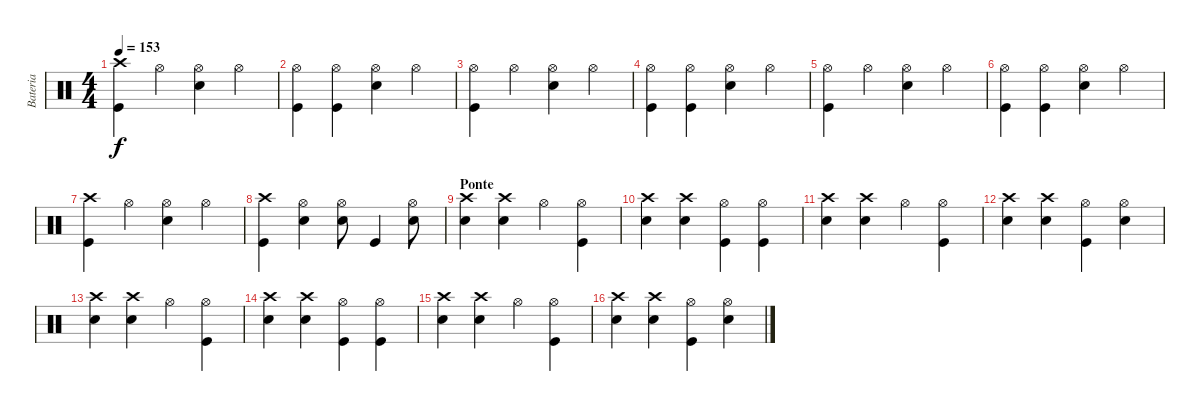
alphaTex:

\track ("Bateria" "Bateria") {instrument percussion}
\staff {score}
\articulation defaults
\ts (4 4)
\tempo 153
\clef neutral
\ks c
("Crash high (hit)" "Kick (hit)").4{dy f} "Hi-Hat (open)".4 ("Hi-Hat (open)" "Electric Snare (hit)").4 "Hi-Hat (open)".4 |
("Hi-Hat (open)" "Kick (hit)").4 ("Hi-Hat (open)" "Kick (hit)").4 ("Hi-Hat (open)" "Electric Snare (hit)").4 "Hi-Hat (open)".4 |
("Hi-Hat (open)" "Kick (hit)").4 "Hi-Hat (open)".4 ("Hi-Hat (open)" "Electric Snare (hit)").4 "Hi-Hat (open)".4 |
("Hi-Hat (open)" "Kick (hit)").4 ("Hi-Hat (open)" "Kick (hit)").4 ("Hi-Hat (open)" "Electric Snare (hit)").4 "Hi-Hat (open)".4 |
("Hi-Hat (open)" "Kick (hit)").4 "Hi-Hat (open)".4 ("Hi-Hat (open)" "Electric Snare (hit)").4 "Hi-Hat (open)".4 |
("Hi-Hat (open)" "Kick (hit)").4 ("Hi-Hat (open)" "Kick (hit)").4 ("Hi-Hat (open)" "Electric Snare (hit)").4 "Hi-Hat (open)".4 |
("Crash high (hit)" "Kick (hit)").4 "Hi-Hat (open)".4 ("Hi-Hat (open)" "Electric Snare (hit)").4 "Hi-Hat (open)".4 |
("Crash high (hit)" "Kick (hit)").4 ("Hi-Hat (open)" "Electric Snare (hit)").4 ("Hi-Hat (open)" "Electric Snare (hit)").8 "Kick (hit)".4 ("Hi-Hat (open)" "Electric Snare (hit)").8 |
\section ("" "Ponte")
("Crash high (hit)" "Electric Snare (hit)").4 ("Crash high (hit)" "Electric Snare (hit)").4 "Hi-Hat (open)".4 ("Hi-Hat (open)" "Kick (hit)").4 |
("Crash high (hit)" "Electric Snare (hit)").4 ("Crash high (hit)" "Electric Snare (hit)").4 ("Hi-Hat (open)" "Kick (hit)").4 ("Hi-Hat (open)" "Kick (hit)").4 |
("Crash high (hit)" "Electric Snare (hit)").4 ("Crash high (hit)" "Electric Snare (hit)").4 "Hi-Hat (open)".4 ("Hi-Hat (open)" "Kick (hit)").4 |
("Crash high (hit)" "Electric Snare (hit)").4 ("Crash high (hit)" "Electric Snare (hit)").4 ("Hi-Hat (open)" "Kick (hit)").4 ("Hi-Hat (open)" "Electric Snare (hit)").4 |
("Crash high (hit)" "Electric Snare (hit)").4 ("Crash high (hit)" "Electric Snare (hit)").4 "Hi-Hat (open)".4 ("Hi-Hat (open)" "Kick (hit)").4 |
("Crash high (hit)" "Electric Snare (hit)").4 ("Crash high (hit)" "Electric Snare (hit)").4 ("Hi-Hat (open)" "Kick (hit)").4 ("Hi-Hat (open)" "Kick (hit)").4 |
("Crash high (hit)" "Electric Snare (hit)").4 ("Crash high (hit)" "Electric Snare (hit)").4 "Hi-Hat (open)".4 ("Hi-Hat (open)" "Kick (hit)").4 |
("Crash high (hit)" "Electric Snare (hit)").4 ("Crash high (hit)" "Electric Snare (hit)").4 ("Hi-Hat (open)" "Kick (hit)").4 ("Hi-Hat (open)" "Electric Snare (hit)").4
